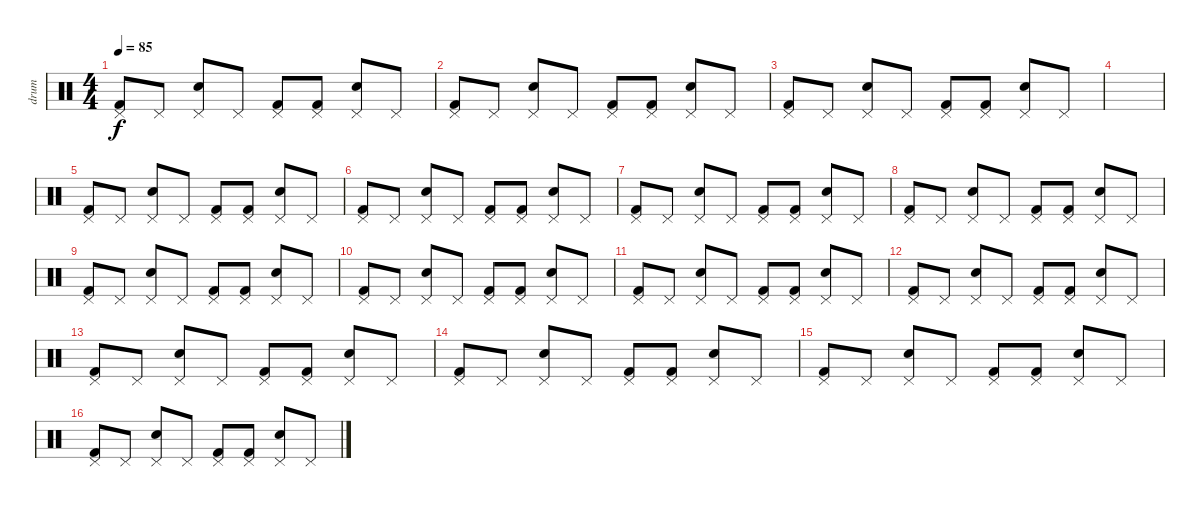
\track ("drum" "drum") {instrument percussion}
\staff {score}
\articulation defaults
\ts (4 4)
\tempo 85
\clef neutral
\ks c
("Pedal Hi-Hat (hit)" "Kick (hit) 2").8{dy f} "Pedal Hi-Hat (hit)".8 ("Pedal Hi-Hat (hit)" "Snare (hit) 2").8 "Pedal Hi-Hat (hit)".8 ("Pedal Hi-Hat (hit)" "Kick (hit) 2").8 ("Pedal Hi-Hat (hit)" "Kick (hit) 2").8 ("Pedal Hi-Hat (hit)" "Snare (hit) 2").8 "Pedal Hi-Hat (hit)".8 |
("Pedal Hi-Hat (hit)" "Kick (hit) 2").8 "Pedal Hi-Hat (hit)".8 ("Pedal Hi-Hat (hit)" "Snare (hit) 2").8 "Pedal Hi-Hat (hit)".8 ("Pedal Hi-Hat (hit)" "Kick (hit) 2").8 ("Pedal Hi-Hat (hit)" "Kick (hit) 2").8 ("Pedal Hi-Hat (hit)" "Snare (hit) 2").8 "Pedal Hi-Hat (hit)".8 |
("Pedal Hi-Hat (hit)" "Kick (hit) 2").8 "Pedal Hi-Hat (hit)".8 ("Pedal Hi-Hat (hit)" "Snare (hit) 2").8 "Pedal Hi-Hat (hit)".8 ("Pedal Hi-Hat (hit)" "Kick (hit) 2").8 ("Pedal Hi-Hat (hit)" "Kick (hit) 2").8 ("Pedal Hi-Hat (hit)" "Snare (hit) 2").8 "Pedal Hi-Hat (hit)".8 |
|
("Pedal Hi-Hat (hit)" "Kick (hit) 2").8 "Pedal Hi-Hat (hit)".8 ("Pedal Hi-Hat (hit)" "Snare (hit) 2").8 "Pedal Hi-Hat (hit)".8 ("Pedal Hi-Hat (hit)" "Kick (hit) 2").8 ("Pedal Hi-Hat (hit)" "Kick (hit) 2").8 ("Pedal Hi-Hat (hit)" "Snare (hit) 2").8 "Pedal Hi-Hat (hit)".8 |
("Pedal Hi-Hat (hit)" "Kick (hit) 2").8 "Pedal Hi-Hat (hit)".8 ("Pedal Hi-Hat (hit)" "Snare (hit) 2").8 "Pedal Hi-Hat (hit)".8 ("Pedal Hi-Hat (hit)" "Kick (hit) 2").8 ("Pedal Hi-Hat (hit)" "Kick (hit) 2").8 ("Pedal Hi-Hat (hit)" "Snare (hit) 2").8 "Pedal Hi-Hat (hit)".8 |
("Pedal Hi-Hat (hit)" "Kick (hit) 2").8 "Pedal Hi-Hat (hit)".8 ("Pedal Hi-Hat (hit)" "Snare (hit) 2").8 "Pedal Hi-Hat (hit)".8 ("Pedal Hi-Hat (hit)" "Kick (hit) 2").8 ("Pedal Hi-Hat (hit)" "Kick (hit) 2").8 ("Pedal Hi-Hat (hit)" "Snare (hit) 2").8 "Pedal Hi-Hat (hit)".8 |
("Pedal Hi-Hat (hit)" "Kick (hit) 2").8 "Pedal Hi-Hat (hit)".8 ("Pedal Hi-Hat (hit)" "Snare (hit) 2").8 "Pedal Hi-Hat (hit)".8 ("Pedal Hi-Hat (hit)" "Kick (hit) 2").8 ("Pedal Hi-Hat (hit)" "Kick (hit) 2").8 ("Pedal Hi-Hat (hit)" "Snare (hit) 2").8 "Pedal Hi-Hat (hit)".8 |
("Pedal Hi-Hat (hit)" "Kick (hit) 2").8 "Pedal Hi-Hat (hit)".8 ("Pedal Hi-Hat (hit)" "Snare (hit) 2").8 "Pedal Hi-Hat (hit)".8 ("Pedal Hi-Hat (hit)" "Kick (hit) 2").8 ("Pedal Hi-Hat (hit)" "Kick (hit) 2").8 ("Pedal Hi-Hat (hit)" "Snare (hit) 2").8 "Pedal Hi-Hat (hit)".8 |
("Pedal Hi-Hat (hit)" "Kick (hit) 2").8 "Pedal Hi-Hat (hit)".8 ("Pedal Hi-Hat (hit)" "Snare (hit) 2").8 "Pedal Hi-Hat (hit)".8 ("Pedal Hi-Hat (hit)" "Kick (hit) 2").8 ("Pedal Hi-Hat (hit)" "Kick (hit) 2").8 ("Pedal Hi-Hat (hit)" "Snare (hit) 2").8 "Pedal Hi-Hat (hit)".8 |
("Pedal Hi-Hat (hit)" "Kick (hit) 2").8 "Pedal Hi-Hat (hit)".8 ("Pedal Hi-Hat (hit)" "Snare (hit) 2").8 "Pedal Hi-Hat (hit)".8 ("Pedal Hi-Hat (hit)" "Kick (hit) 2").8 ("Pedal Hi-Hat (hit)" "Kick (hit) 2").8 ("Pedal Hi-Hat (hit)" "Snare (hit) 2").8 "Pedal Hi-Hat (hit)".8 |
("Pedal Hi-Hat (hit)" "Kick (hit) 2").8 "Pedal Hi-Hat (hit)".8 ("Pedal Hi-Hat (hit)" "Snare (hit) 2").8 "Pedal Hi-Hat (hit)".8 ("Pedal Hi-Hat (hit)" "Kick (hit) 2").8 ("Pedal Hi-Hat (hit)" "Kick (hit) 2").8 ("Pedal Hi-Hat (hit)" "Snare (hit) 2").8 "Pedal Hi-Hat (hit)".8 |
("Pedal Hi-Hat (hit)" "Kick (hit) 2").8 "Pedal Hi-Hat (hit)".8 ("Pedal Hi-Hat (hit)" "Snare (hit) 2").8 "Pedal Hi-Hat (hit)".8 ("Pedal Hi-Hat (hit)" "Kick (hit) 2").8 ("Pedal Hi-Hat (hit)" "Kick (hit) 2").8 ("Pedal Hi-Hat (hit)" "Snare (hit) 2").8 "Pedal Hi-Hat (hit)".8 |
("Pedal Hi-Hat (hit)" "Kick (hit) 2").8 "Pedal Hi-Hat (hit)".8 ("Pedal Hi-Hat (hit)" "Snare (hit) 2").8 "Pedal Hi-Hat (hit)".8 ("Pedal Hi-Hat (hit)" "Kick (hit) 2").8 ("Pedal Hi-Hat (hit)" "Kick (hit) 2").8 ("Pedal Hi-Hat (hit)" "Snare (hit) 2").8 "Pedal Hi-Hat (hit)".8 |
("Pedal Hi-Hat (hit)" "Kick (hit) 2").8 "Pedal Hi-Hat (hit)".8 ("Pedal Hi-Hat (hit)" "Snare (hit) 2").8 "Pedal Hi-Hat (hit)".8 ("Pedal Hi-Hat (hit)" "Kick (hit) 2").8 ("Pedal Hi-Hat (hit)" "Kick (hit) 2").8 ("Pedal Hi-Hat (hit)" "Snare (hit) 2").8 "Pedal Hi-Hat (hit)".8 |
("Pedal Hi-Hat (hit)" "Kick (hit) 2").8 "Pedal Hi-Hat (hit)".8 ("Pedal Hi-Hat (hit)" "Snare (hit) 2").8 "Pedal Hi-Hat (hit)".8 ("Pedal Hi-Hat (hit)" "Kick (hit) 2").8 ("Pedal Hi-Hat (hit)" "Kick (hit) 2").8 ("Pedal Hi-Hat (hit)" "Snare (hit) 2").8 "Pedal Hi-Hat (hit)".8
